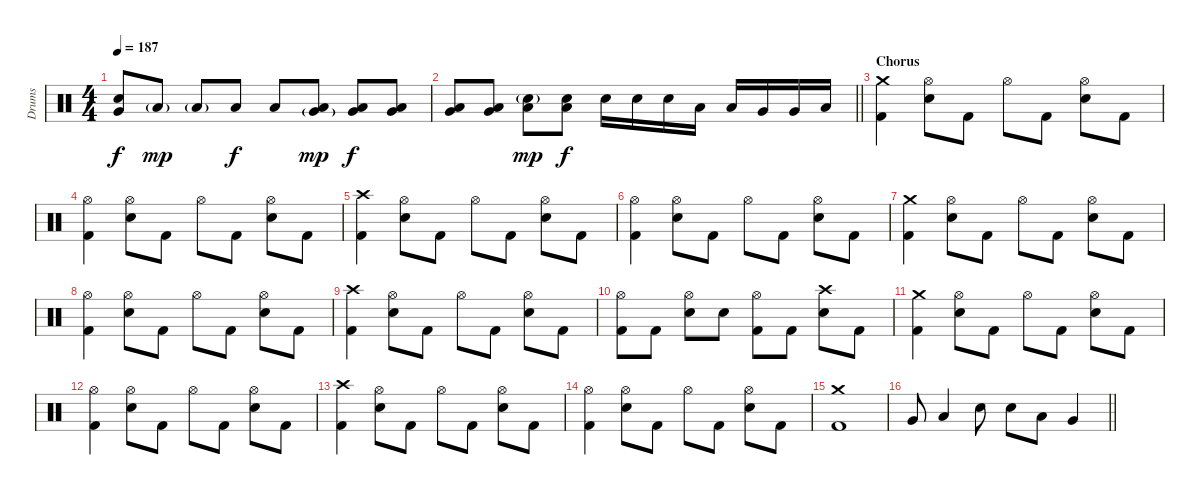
\track ("Drums" "Drums") {instrument percussion}
\staff {score}
\articulation defaults
\ts (4 4)
\tempo 187
\clef neutral
\ks c
("Very Low Tom (hit)" "Electric Snare (hit)").8{dy f} "Low Floor Tom (hit)"{g}.8{dy mp} "Low Floor Tom (hit)"{g}.8 "Low Floor Tom (hit)".8{dy f} "Low Floor Tom (hit)".8 ("Very Low Tom (hit)"{g} "Low Floor Tom (hit)").8{dy mp} ("Very Low Tom (hit)" "Low Floor Tom (hit)").8{dy f} ("Very Low Tom (hit)" "Low Floor Tom (hit)").8 |
\barLineRight lightlight
("Low Tom (hit)" "Very Low Tom (hit)").8 ("Low Tom (hit)" "Very Low Tom (hit)").8 ("Low Tom (hit)" "Electric Snare (hit)"{g}).8{dy mp} ("Low Tom (hit)" "Electric Snare (hit)").8{dy f} "Electric Snare (hit)".16 "Electric Snare (hit)".16 "Electric Snare (hit)".16 "Low Tom (hit)".16 "Low Tom (hit)".16 "Very Low Tom (hit)".16 "Very Low Tom (hit)".16 "Low Floor Tom (hit)".16 |
\section ("" "Chorus")
("Crash medium (hit)" "Kick (hit) 2").4 ("Hi-Hat (open)" "Electric Snare (hit)").8 "Kick (hit) 2".8 "Hi-Hat (open)".8 "Kick (hit) 2".8 ("Hi-Hat (open)" "Electric Snare (hit)").8 "Kick (hit) 2".8 |
("Hi-Hat (open)" "Kick (hit) 2").4 ("Hi-Hat (open)" "Electric Snare (hit)").8 "Kick (hit) 2".8 "Hi-Hat (open)".8 "Kick (hit) 2".8 ("Hi-Hat (open)" "Electric Snare (hit)").8 "Kick (hit) 2".8 |
("Crash high (hit)" "Kick (hit) 2").4 ("Hi-Hat (open)" "Electric Snare (hit)").8 "Kick (hit) 2".8 "Hi-Hat (open)".8 "Kick (hit) 2".8 ("Hi-Hat (open)" "Electric Snare (hit)").8 "Kick (hit) 2".8 |
("Hi-Hat (open)" "Kick (hit) 2").4 ("Hi-Hat (open)" "Electric Snare (hit)").8 "Kick (hit) 2".8 "Hi-Hat (open)".8 "Kick (hit) 2".8 ("Hi-Hat (open)" "Electric Snare (hit)").8 "Kick (hit) 2".8 |
("Crash medium (hit)" "Kick (hit) 2").4 ("Hi-Hat (open)" "Electric Snare (hit)").8 "Kick (hit) 2".8 "Hi-Hat (open)".8 "Kick (hit) 2".8 ("Hi-Hat (open)" "Electric Snare (hit)").8 "Kick (hit) 2".8 |
("Hi-Hat (open)" "Kick (hit) 2").4 ("Hi-Hat (open)" "Electric Snare (hit)").8 "Kick (hit) 2".8 "Hi-Hat (open)".8 "Kick (hit) 2".8 ("Hi-Hat (open)" "Electric Snare (hit)").8 "Kick (hit) 2".8 |
("Crash high (hit)" "Kick (hit) 2").4 ("Hi-Hat (open)" "Electric Snare (hit)").8 "Kick (hit) 2".8 "Hi-Hat (open)".8 "Kick (hit) 2".8 ("Hi-Hat (open)" "Electric Snare (hit)").8 "Kick (hit) 2".8 |
("Hi-Hat (open)" "Kick (hit) 2").8 "Kick (hit) 2".8 ("Hi-Hat (open)" "Electric Snare (hit)").8 "Electric Snare (hit)".8 ("Hi-Hat (open)" "Kick (hit) 2").8 "Kick (hit) 2".8 ("Crash high (hit)" "Electric Snare (hit)").8 "Kick (hit) 2".8 |
("Crash medium (hit)" "Kick (hit) 2").4 ("Hi-Hat (open)" "Electric Snare (hit)").8 "Kick (hit) 2".8 "Hi-Hat (open)".8 "Kick (hit) 2".8 ("Hi-Hat (open)" "Electric Snare (hit)").8 "Kick (hit) 2".8 |
("Hi-Hat (open)" "Kick (hit) 2").4 ("Hi-Hat (open)" "Electric Snare (hit)").8 "Kick (hit) 2".8 "Hi-Hat (open)".8 "Kick (hit) 2".8 ("Hi-Hat (open)" "Electric Snare (hit)").8 "Kick (hit) 2".8 |
("Crash high (hit)" "Kick (hit) 2").4 ("Hi-Hat (open)" "Electric Snare (hit)").8 "Kick (hit) 2".8 "Hi-Hat (open)".8 "Kick (hit) 2".8 ("Hi-Hat (open)" "Electric Snare (hit)").8 "Kick (hit) 2".8 |
("Hi-Hat (open)" "Kick (hit) 2").4 ("Hi-Hat (open)" "Electric Snare (hit)").8 "Kick (hit) 2".8 "Hi-Hat (open)".8 "Kick (hit) 2".8 ("Hi-Hat (open)" "Electric Snare (hit)").8 "Kick (hit) 2".8 |
("Crash medium (hit)" "Kick (hit) 2").1 |
\barLineRight lightlight "Very Low Tom (hit)".8 "Low Tom (hit)".4 "Electric Snare (hit)".8 "Electric Snare (hit)".8 "Low Tom (hit)".8 "Very Low Tom (hit)".4
